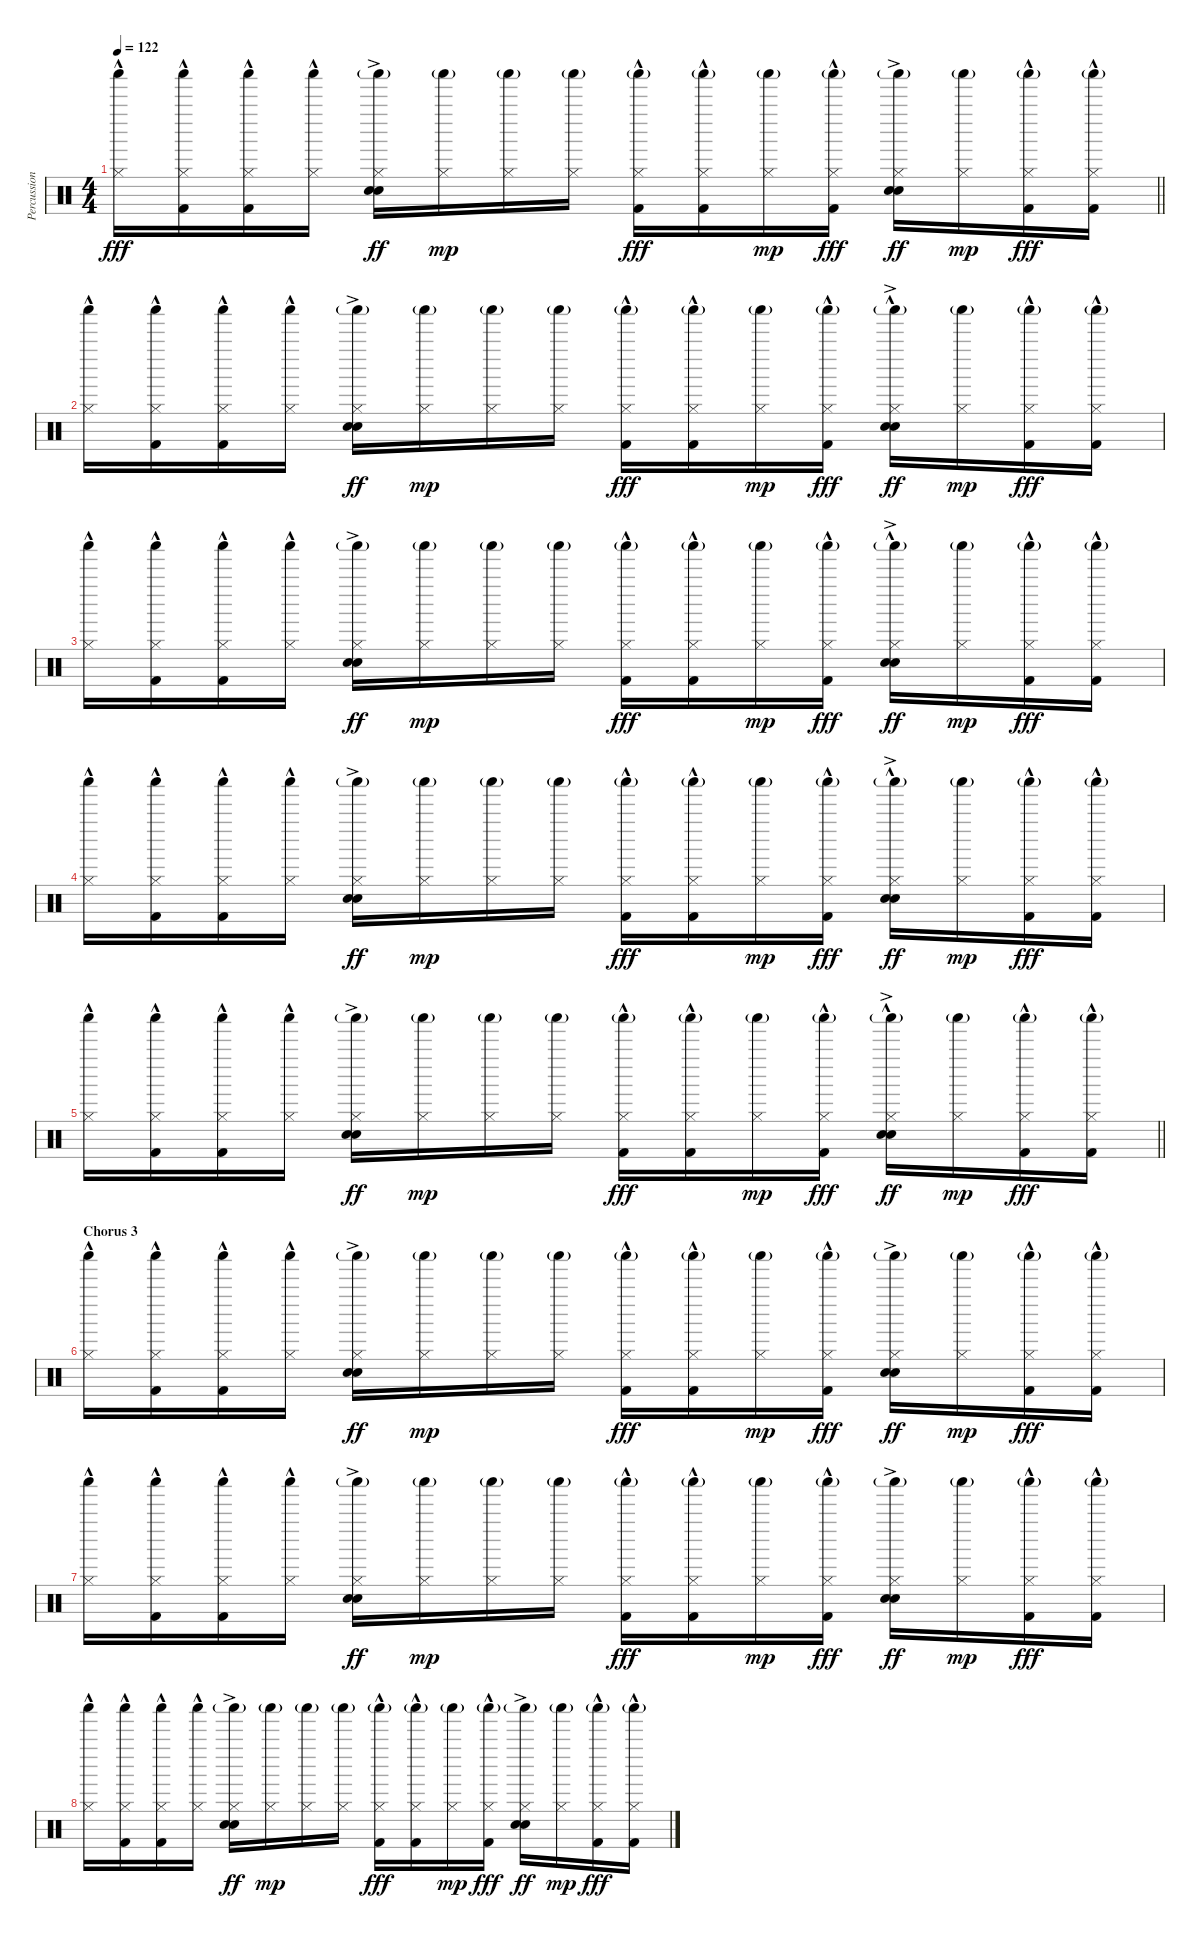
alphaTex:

\track ("Percussion" "Percussion") {instrument percussion}
\staff {score}
\articulation defaults
\ts (4 4)
\tempo 122
\clef neutral
\barLineRight lightlight
\ks c
("Shaker (hit)" "Hi-Hat (closed)"{hac}).16{dy fff} ("Shaker (hit)" "Hi-Hat (closed)"{hac} "Kick (hit) 2"{hac}).16 ("Shaker (hit)" "Hi-Hat (closed)"{hac} "Kick (hit) 2"{hac}).16 ("Shaker (hit)" "Hi-Hat (closed)"{hac}).16 ("Shaker (hit)"{g} "Hi-Hat (closed)" "Hand Clap (hit)" "Snare (hit) 2"{ac}).16{dy ff} ("Shaker (hit)"{g} "Hi-Hat (closed)").16{dy mp} ("Shaker (hit)"{g} "Hi-Hat (closed)").16 ("Shaker (hit)"{g} "Hi-Hat (closed)").16 ("Shaker (hit)"{g} "Hi-Hat (closed)" "Kick (hit) 2"{hac}).16{dy fff} ("Shaker (hit)"{g} "Hi-Hat (closed)" "Kick (hit) 2"{hac}).16 ("Shaker (hit)"{g} "Hi-Hat (closed)").16{dy mp} ("Shaker (hit)"{g} "Hi-Hat (closed)" "Kick (hit) 2"{hac}).16{dy fff} ("Shaker (hit)"{g} "Hi-Hat (closed)" "Hand Clap (hit)"{ac} "Snare (hit) 2"{ac}).16{dy ff} ("Shaker (hit)"{g} "Hi-Hat (closed)").16{dy mp} ("Shaker (hit)"{g} "Hi-Hat (closed)" "Kick (hit) 2"{hac}).16{dy fff} ("Shaker (hit)"{g} "Hi-Hat (closed)" "Kick (hit) 2"{hac}).16 |
("Shaker (hit)" "Hi-Hat (closed)"{hac}).16 ("Shaker (hit)" "Hi-Hat (closed)"{hac} "Kick (hit) 2"{hac}).16 ("Shaker (hit)" "Hi-Hat (closed)"{hac} "Kick (hit) 2"{hac}).16 ("Shaker (hit)" "Hi-Hat (closed)"{hac}).16 ("Shaker (hit)"{g} "Hi-Hat (closed)" "Hand Clap (hit)"{ac} "Snare (hit) 2"{ac}).16{dy ff} ("Shaker (hit)"{g} "Hi-Hat (closed)").16{dy mp} ("Shaker (hit)"{g} "Hi-Hat (closed)").16 ("Shaker (hit)"{g} "Hi-Hat (closed)").16 ("Shaker (hit)"{g} "Hi-Hat (closed)" "Kick (hit) 2"{hac}).16{dy fff} ("Shaker (hit)"{g} "Hi-Hat (closed)" "Kick (hit) 2"{hac}).16 ("Shaker (hit)"{g} "Hi-Hat (closed)").16{dy mp} ("Shaker (hit)"{g} "Hi-Hat (closed)" "Kick (hit) 2"{hac}).16{dy fff} ("Shaker (hit)"{g} "Hi-Hat (closed)" "Hand Clap (hit)"{hac} "Snare (hit) 2"{ac}).16{dy ff} ("Shaker (hit)"{g} "Hi-Hat (closed)").16{dy mp} ("Shaker (hit)"{g} "Hi-Hat (closed)" "Kick (hit) 2"{hac}).16{dy fff} ("Shaker (hit)"{g} "Hi-Hat (closed)" "Kick (hit) 2"{hac}).16 |
("Shaker (hit)" "Hi-Hat (closed)"{hac}).16 ("Shaker (hit)" "Hi-Hat (closed)"{hac} "Kick (hit) 2"{hac}).16 ("Shaker (hit)" "Hi-Hat (closed)"{hac} "Kick (hit) 2"{hac}).16 ("Shaker (hit)" "Hi-Hat (closed)"{hac}).16 ("Shaker (hit)"{g} "Hi-Hat (closed)" "Hand Clap (hit)"{ac} "Snare (hit) 2"{ac}).16{dy ff} ("Shaker (hit)"{g} "Hi-Hat (closed)").16{dy mp} ("Shaker (hit)"{g} "Hi-Hat (closed)").16 ("Shaker (hit)"{g} "Hi-Hat (closed)").16 ("Shaker (hit)"{g} "Hi-Hat (closed)" "Kick (hit) 2"{hac}).16{dy fff} ("Shaker (hit)"{g} "Hi-Hat (closed)" "Kick (hit) 2"{hac}).16 ("Shaker (hit)"{g} "Hi-Hat (closed)").16{dy mp} ("Shaker (hit)"{g} "Hi-Hat (closed)" "Kick (hit) 2"{hac}).16{dy fff} ("Shaker (hit)"{g} "Hi-Hat (closed)" "Hand Clap (hit)"{hac} "Snare (hit) 2"{ac}).16{dy ff} ("Shaker (hit)"{g} "Hi-Hat (closed)").16{dy mp} ("Shaker (hit)"{g} "Hi-Hat (closed)" "Kick (hit) 2"{hac}).16{dy fff} ("Shaker (hit)"{g} "Hi-Hat (closed)" "Kick (hit) 2"{hac}).16 |
("Shaker (hit)" "Hi-Hat (closed)"{hac}).16 ("Shaker (hit)" "Hi-Hat (closed)"{hac} "Kick (hit) 2"{hac}).16 ("Shaker (hit)" "Hi-Hat (closed)"{hac} "Kick (hit) 2"{hac}).16 ("Shaker (hit)" "Hi-Hat (closed)"{hac}).16 ("Shaker (hit)"{g} "Hi-Hat (closed)" "Hand Clap (hit)"{ac} "Snare (hit) 2"{ac}).16{dy ff} ("Shaker (hit)"{g} "Hi-Hat (closed)").16{dy mp} ("Shaker (hit)"{g} "Hi-Hat (closed)").16 ("Shaker (hit)"{g} "Hi-Hat (closed)").16 ("Shaker (hit)"{g} "Hi-Hat (closed)" "Kick (hit) 2"{hac}).16{dy fff} ("Shaker (hit)"{g} "Hi-Hat (closed)" "Kick (hit) 2"{hac}).16 ("Shaker (hit)"{g} "Hi-Hat (closed)").16{dy mp} ("Shaker (hit)"{g} "Hi-Hat (closed)" "Kick (hit) 2"{hac}).16{dy fff} ("Shaker (hit)"{g} "Hi-Hat (closed)" "Hand Clap (hit)"{hac} "Snare (hit) 2"{ac}).16{dy ff} ("Shaker (hit)"{g} "Hi-Hat (closed)").16{dy mp} ("Shaker (hit)"{g} "Hi-Hat (closed)" "Kick (hit) 2"{hac}).16{dy fff} ("Shaker (hit)"{g} "Hi-Hat (closed)" "Kick (hit) 2"{hac}).16 |
\barLineRight lightlight
("Shaker (hit)" "Hi-Hat (closed)"{hac}).16 ("Shaker (hit)" "Hi-Hat (closed)"{hac} "Kick (hit) 2"{hac}).16 ("Shaker (hit)" "Hi-Hat (closed)"{hac} "Kick (hit) 2"{hac}).16 ("Shaker (hit)" "Hi-Hat (closed)"{hac}).16 ("Shaker (hit)"{g} "Hi-Hat (closed)" "Hand Clap (hit)"{ac} "Snare (hit) 2"{ac}).16{dy ff} ("Shaker (hit)"{g} "Hi-Hat (closed)").16{dy mp} ("Shaker (hit)"{g} "Hi-Hat (closed)").16 ("Shaker (hit)"{g} "Hi-Hat (closed)").16 ("Shaker (hit)"{g} "Hi-Hat (closed)" "Kick (hit) 2"{hac}).16{dy fff} ("Shaker (hit)"{g} "Hi-Hat (closed)" "Kick (hit) 2"{hac}).16 ("Shaker (hit)"{g} "Hi-Hat (closed)").16{dy mp} ("Shaker (hit)"{g} "Hi-Hat (closed)" "Kick (hit) 2"{hac}).16{dy fff} ("Shaker (hit)"{g} "Hi-Hat (closed)" "Hand Clap (hit)"{hac} "Snare (hit) 2"{ac}).16{dy ff} ("Shaker (hit)"{g} "Hi-Hat (closed)").16{dy mp} ("Shaker (hit)"{g} "Hi-Hat (closed)" "Kick (hit) 2"{hac}).16{dy fff} ("Shaker (hit)"{g} "Hi-Hat (closed)" "Kick (hit) 2"{hac}).16 |
\section ("" "Chorus 3")
("Shaker (hit)" "Hi-Hat (closed)"{hac}).16 ("Shaker (hit)" "Hi-Hat (closed)"{hac} "Kick (hit) 2"{hac}).16 ("Shaker (hit)" "Hi-Hat (closed)"{hac} "Kick (hit) 2"{hac}).16 ("Shaker (hit)" "Hi-Hat (closed)"{hac}).16 ("Shaker (hit)"{g} "Hi-Hat (closed)" "Hand Clap (hit)" "Snare (hit) 2"{ac}).16{dy ff} ("Shaker (hit)"{g} "Hi-Hat (closed)").16{dy mp} ("Shaker (hit)"{g} "Hi-Hat (closed)").16 ("Shaker (hit)"{g} "Hi-Hat (closed)").16 ("Shaker (hit)"{g} "Hi-Hat (closed)" "Kick (hit) 2"{hac}).16{dy fff} ("Shaker (hit)"{g} "Hi-Hat (closed)" "Kick (hit) 2"{hac}).16 ("Shaker (hit)"{g} "Hi-Hat (closed)").16{dy mp} ("Shaker (hit)"{g} "Hi-Hat (closed)" "Kick (hit) 2"{hac}).16{dy fff} ("Shaker (hit)"{g} "Hi-Hat (closed)" "Hand Clap (hit)"{ac} "Snare (hit) 2"{ac}).16{dy ff} ("Shaker (hit)"{g} "Hi-Hat (closed)").16{dy mp} ("Shaker (hit)"{g} "Hi-Hat (closed)" "Kick (hit) 2"{hac}).16{dy fff} ("Shaker (hit)"{g} "Hi-Hat (closed)" "Kick (hit) 2"{hac}).16 |
("Shaker (hit)" "Hi-Hat (closed)"{hac}).16 ("Shaker (hit)" "Hi-Hat (closed)"{hac} "Kick (hit) 2"{hac}).16 ("Shaker (hit)" "Hi-Hat (closed)"{hac} "Kick (hit) 2"{hac}).16 ("Shaker (hit)" "Hi-Hat (closed)"{hac}).16 ("Shaker (hit)"{g} "Hi-Hat (closed)" "Hand Clap (hit)" "Snare (hit) 2"{ac}).16{dy ff} ("Shaker (hit)"{g} "Hi-Hat (closed)").16{dy mp} ("Shaker (hit)"{g} "Hi-Hat (closed)").16 ("Shaker (hit)"{g} "Hi-Hat (closed)").16 ("Shaker (hit)"{g} "Hi-Hat (closed)" "Kick (hit) 2"{hac}).16{dy fff} ("Shaker (hit)"{g} "Hi-Hat (closed)" "Kick (hit) 2"{hac}).16 ("Shaker (hit)"{g} "Hi-Hat (closed)").16{dy mp} ("Shaker (hit)"{g} "Hi-Hat (closed)" "Kick (hit) 2"{hac}).16{dy fff} ("Shaker (hit)"{g} "Hi-Hat (closed)" "Hand Clap (hit)"{ac} "Snare (hit) 2"{ac}).16{dy ff} ("Shaker (hit)"{g} "Hi-Hat (closed)").16{dy mp} ("Shaker (hit)"{g} "Hi-Hat (closed)" "Kick (hit) 2"{hac}).16{dy fff} ("Shaker (hit)"{g} "Hi-Hat (closed)" "Kick (hit) 2"{hac}).16 |
("Shaker (hit)" "Hi-Hat (closed)"{hac}).16 ("Shaker (hit)" "Hi-Hat (closed)"{hac} "Kick (hit) 2"{hac}).16 ("Shaker (hit)" "Hi-Hat (closed)"{hac} "Kick (hit) 2"{hac}).16 ("Shaker (hit)" "Hi-Hat (closed)"{hac}).16 ("Shaker (hit)"{g} "Hi-Hat (closed)" "Hand Clap (hit)" "Snare (hit) 2"{ac}).16{dy ff} ("Shaker (hit)"{g} "Hi-Hat (closed)").16{dy mp} ("Shaker (hit)"{g} "Hi-Hat (closed)").16 ("Shaker (hit)"{g} "Hi-Hat (closed)").16 ("Shaker (hit)"{g} "Hi-Hat (closed)" "Kick (hit) 2"{hac}).16{dy fff} ("Shaker (hit)"{g} "Hi-Hat (closed)" "Kick (hit) 2"{hac}).16 ("Shaker (hit)"{g} "Hi-Hat (closed)").16{dy mp} ("Shaker (hit)"{g} "Hi-Hat (closed)" "Kick (hit) 2"{hac}).16{dy fff} ("Shaker (hit)"{g} "Hi-Hat (closed)" "Hand Clap (hit)"{ac} "Snare (hit) 2"{ac}).16{dy ff} ("Shaker (hit)"{g} "Hi-Hat (closed)").16{dy mp} ("Shaker (hit)"{g} "Hi-Hat (closed)" "Kick (hit) 2"{hac}).16{dy fff} ("Shaker (hit)"{g} "Hi-Hat (closed)" "Kick (hit) 2"{hac}).16
